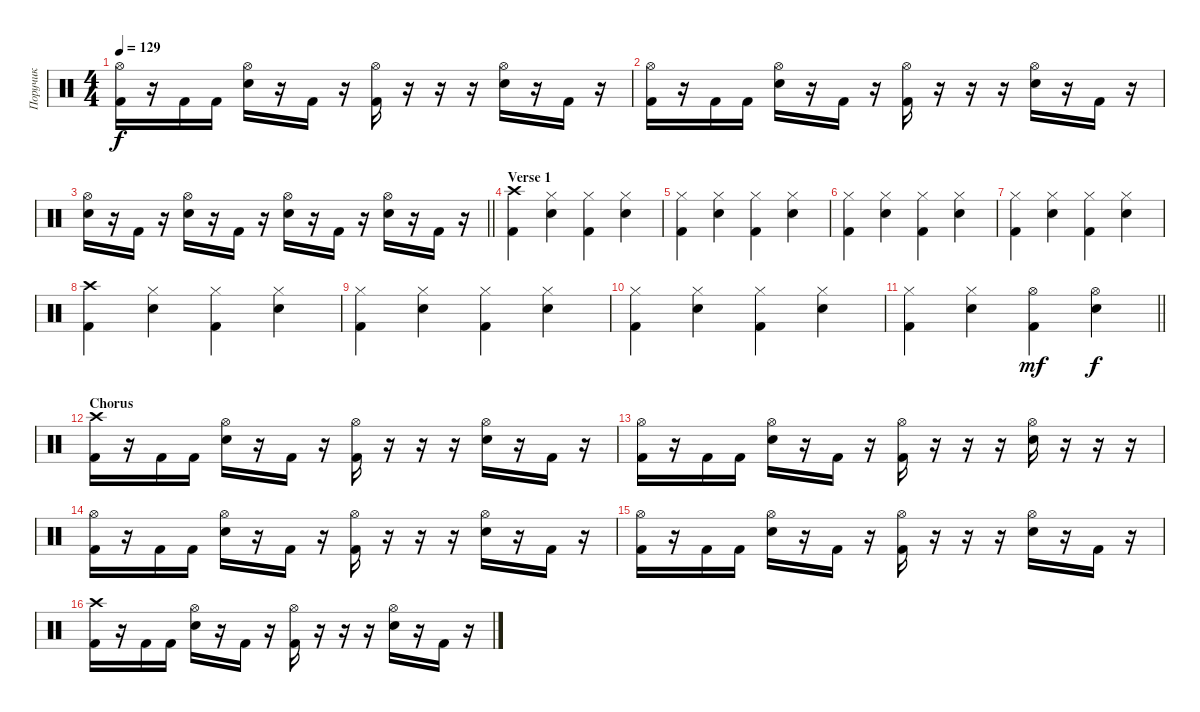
\track ("Поручик" "Поручик") {instrument percussion}
\staff {score}
\articulation defaults
\ts (4 4)
\tempo 129
\clef neutral
\ks c
("Hi-Hat (open)" "Kick (hit) 2").16{dy f} r.16 "Kick (hit) 2".16 "Kick (hit) 2".16 ("Hi-Hat (open)" "Snare (hit) 2").16 r.16 "Kick (hit) 2".16 r.16 ("Hi-Hat (open)" "Kick (hit) 2").16 r.16 r.16 r.16 ("Hi-Hat (open)" "Snare (hit) 2").16 r.16 "Kick (hit) 2".16 r.16 |
("Hi-Hat (open)" "Kick (hit) 2").16 r.16 "Kick (hit) 2".16 "Kick (hit) 2".16 ("Hi-Hat (open)" "Snare (hit) 2").16 r.16 "Kick (hit) 2".16 r.16 ("Hi-Hat (open)" "Kick (hit) 2").16 r.16 r.16 r.16 ("Hi-Hat (open)" "Snare (hit) 2").16 r.16 "Kick (hit) 2".16 r.16 |
\barLineRight lightlight
("Hi-Hat (open)" "Snare (hit) 2").16 r.16 "Kick (hit) 2".16 r.16 ("Hi-Hat (open)" "Snare (hit) 2").16 r.16 "Kick (hit) 2".16 r.16 ("Hi-Hat (open)" "Snare (hit) 2").16 r.16 "Kick (hit) 2".16 r.16 ("Hi-Hat (open)" "Snare (hit) 2").16 r.16 "Kick (hit) 2".16 r.16 |
\section ("" "Verse 1")
("Crash high (hit)" "Kick (hit) 2").4 ("Hi-Hat (closed)" "Snare (hit) 2").4 ("Hi-Hat (closed)" "Kick (hit) 2").4 ("Hi-Hat (closed)" "Snare (hit) 2").4 |
("Hi-Hat (closed)" "Kick (hit) 2").4 ("Hi-Hat (closed)" "Snare (hit) 2").4 ("Hi-Hat (closed)" "Kick (hit) 2").4 ("Hi-Hat (closed)" "Snare (hit) 2").4 |
("Hi-Hat (closed)" "Kick (hit) 2").4 ("Hi-Hat (closed)" "Snare (hit) 2").4 ("Hi-Hat (closed)" "Kick (hit) 2").4 ("Hi-Hat (closed)" "Snare (hit) 2").4 |
("Hi-Hat (closed)" "Kick (hit) 2").4 ("Hi-Hat (closed)" "Snare (hit) 2").4 ("Hi-Hat (closed)" "Kick (hit) 2").4 ("Hi-Hat (closed)" "Snare (hit) 2").4 |
("Crash high (hit)" "Kick (hit) 2").4 ("Hi-Hat (closed)" "Snare (hit) 2").4 ("Hi-Hat (closed)" "Kick (hit) 2").4 ("Hi-Hat (closed)" "Snare (hit) 2").4 |
("Hi-Hat (closed)" "Kick (hit) 2").4 ("Hi-Hat (closed)" "Snare (hit) 2").4 ("Hi-Hat (closed)" "Kick (hit) 2").4 ("Hi-Hat (closed)" "Snare (hit) 2").4 |
("Hi-Hat (closed)" "Kick (hit) 2").4 ("Hi-Hat (closed)" "Snare (hit) 2").4 ("Hi-Hat (closed)" "Kick (hit) 2").4 ("Hi-Hat (closed)" "Snare (hit) 2").4 |
\barLineRight lightlight
("Hi-Hat (closed)" "Kick (hit) 2").4 ("Hi-Hat (closed)" "Snare (hit) 2").4 ("Hi-Hat (open)" "Kick (hit) 2").4{dy mf} ("Hi-Hat (open)" "Snare (hit) 2").4{dy f} |
\section ("" "Chorus")
("Crash high (hit)" "Kick (hit) 2").16 r.16 "Kick (hit) 2".16 "Kick (hit) 2".16 ("Hi-Hat (open)" "Snare (hit) 2").16 r.16 "Kick (hit) 2".16 r.16 ("Hi-Hat (open)" "Kick (hit) 2").16 r.16 r.16 r.16 ("Hi-Hat (open)" "Snare (hit) 2").16 r.16 "Kick (hit) 2".16 r.16 |
("Hi-Hat (open)" "Kick (hit) 2").16 r.16 "Kick (hit) 2".16 "Kick (hit) 2".16 ("Hi-Hat (open)" "Snare (hit) 2").16 r.16 "Kick (hit) 2".16 r.16 ("Hi-Hat (open)" "Kick (hit) 2").16 r.16 r.16 r.16 ("Hi-Hat (open)" "Snare (hit) 2").16 r.16 r.16 r.16 |
("Hi-Hat (open)" "Kick (hit) 2").16 r.16 "Kick (hit) 2".16 "Kick (hit) 2".16 ("Hi-Hat (open)" "Snare (hit) 2").16 r.16 "Kick (hit) 2".16 r.16 ("Hi-Hat (open)" "Kick (hit) 2").16 r.16 r.16 r.16 ("Hi-Hat (open)" "Snare (hit) 2").16 r.16 "Kick (hit) 2".16 r.16 |
("Hi-Hat (open)" "Kick (hit) 2").16 r.16 "Kick (hit) 2".16 "Kick (hit) 2".16 ("Hi-Hat (open)" "Snare (hit) 2").16 r.16 "Kick (hit) 2".16 r.16 ("Hi-Hat (open)" "Kick (hit) 2").16 r.16 r.16 r.16 ("Hi-Hat (open)" "Snare (hit) 2").16 r.16 "Kick (hit) 2".16 r.16 |
("Crash high (hit)" "Kick (hit) 2").16 r.16 "Kick (hit) 2".16 "Kick (hit) 2".16 ("Hi-Hat (open)" "Snare (hit) 2").16 r.16 "Kick (hit) 2".16 r.16 ("Hi-Hat (open)" "Kick (hit) 2").16 r.16 r.16 r.16 ("Hi-Hat (open)" "Snare (hit) 2").16 r.16 "Kick (hit) 2".16 r.16
